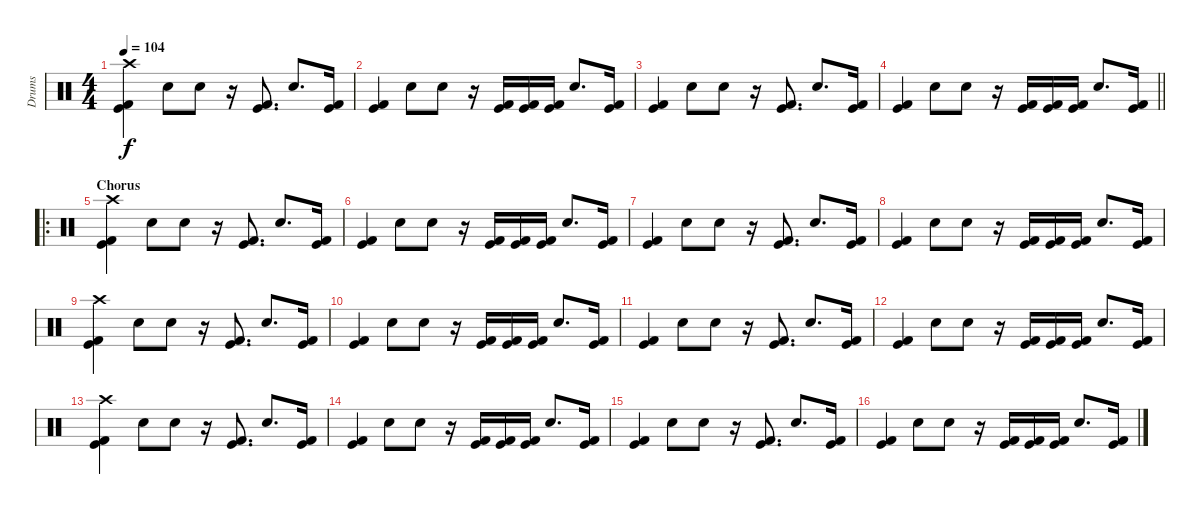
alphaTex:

\track ("Drums" "Drums") {instrument percussion}
\staff {score}
\articulation defaults
\ts (4 4)
\tempo 104
\clef neutral
\ks c
("Crash high (hit)" "Kick (hit) 2" "Kick (hit)").4{dy f} "Snare (hit) 2".8 "Snare (hit) 2".8 r.16 ("Kick (hit) 2" "Kick (hit)").8{d} "Snare (hit) 2".8{d} ("Kick (hit) 2" "Kick (hit)").16 |
("Kick (hit) 2" "Kick (hit)").4 "Snare (hit) 2".8 "Snare (hit) 2".8 r.16 ("Kick (hit) 2" "Kick (hit)").16 ("Kick (hit) 2" "Kick (hit)").16 ("Kick (hit) 2" "Kick (hit)").16 "Snare (hit) 2".8{d} ("Kick (hit) 2" "Kick (hit)").16 |
("Kick (hit) 2" "Kick (hit)").4 "Snare (hit) 2".8 "Snare (hit) 2".8 r.16 ("Kick (hit) 2" "Kick (hit)").8{d} "Snare (hit) 2".8{d} ("Kick (hit) 2" "Kick (hit)").16 |
\barLineRight lightlight
("Kick (hit) 2" "Kick (hit)").4 "Snare (hit) 2".8 "Snare (hit) 2".8 r.16 ("Kick (hit) 2" "Kick (hit)").16 ("Kick (hit) 2" "Kick (hit)").16 ("Kick (hit) 2" "Kick (hit)").16 "Snare (hit) 2".8{d} ("Kick (hit) 2" "Kick (hit)").16 |
\ro
\section ("" "Chorus")
("Crash high (hit)" "Kick (hit) 2" "Kick (hit)").4 "Snare (hit) 2".8 "Snare (hit) 2".8 r.16 ("Kick (hit) 2" "Kick (hit)").8{d} "Snare (hit) 2".8{d} ("Kick (hit) 2" "Kick (hit)").16 |
("Kick (hit) 2" "Kick (hit)").4 "Snare (hit) 2".8 "Snare (hit) 2".8 r.16 ("Kick (hit) 2" "Kick (hit)").16 ("Kick (hit) 2" "Kick (hit)").16 ("Kick (hit) 2" "Kick (hit)").16 "Snare (hit) 2".8{d} ("Kick (hit) 2" "Kick (hit)").16 |
("Kick (hit) 2" "Kick (hit)").4 "Snare (hit) 2".8 "Snare (hit) 2".8 r.16 ("Kick (hit) 2" "Kick (hit)").8{d} "Snare (hit) 2".8{d} ("Kick (hit) 2" "Kick (hit)").16 |
("Kick (hit) 2" "Kick (hit)").4 "Snare (hit) 2".8 "Snare (hit) 2".8 r.16 ("Kick (hit) 2" "Kick (hit)").16 ("Kick (hit) 2" "Kick (hit)").16 ("Kick (hit) 2" "Kick (hit)").16 "Snare (hit) 2".8{d} ("Kick (hit) 2" "Kick (hit)").16 |
("Crash high (hit)" "Kick (hit) 2" "Kick (hit)").4 "Snare (hit) 2".8 "Snare (hit) 2".8 r.16 ("Kick (hit) 2" "Kick (hit)").8{d} "Snare (hit) 2".8{d} ("Kick (hit) 2" "Kick (hit)").16 |
("Kick (hit) 2" "Kick (hit)").4 "Snare (hit) 2".8 "Snare (hit) 2".8 r.16 ("Kick (hit) 2" "Kick (hit)").16 ("Kick (hit) 2" "Kick (hit)").16 ("Kick (hit) 2" "Kick (hit)").16 "Snare (hit) 2".8{d} ("Kick (hit) 2" "Kick (hit)").16 |
("Kick (hit) 2" "Kick (hit)").4 "Snare (hit) 2".8 "Snare (hit) 2".8 r.16 ("Kick (hit) 2" "Kick (hit)").8{d} "Snare (hit) 2".8{d} ("Kick (hit) 2" "Kick (hit)").16 |
("Kick (hit) 2" "Kick (hit)").4 "Snare (hit) 2".8 "Snare (hit) 2".8 r.16 ("Kick (hit) 2" "Kick (hit)").16 ("Kick (hit) 2" "Kick (hit)").16 ("Kick (hit) 2" "Kick (hit)").16 "Snare (hit) 2".8{d} ("Kick (hit) 2" "Kick (hit)").16 |
("Crash high (hit)" "Kick (hit) 2" "Kick (hit)").4 "Snare (hit) 2".8 "Snare (hit) 2".8 r.16 ("Kick (hit) 2" "Kick (hit)").8{d} "Snare (hit) 2".8{d} ("Kick (hit) 2" "Kick (hit)").16 |
("Kick (hit) 2" "Kick (hit)").4 "Snare (hit) 2".8 "Snare (hit) 2".8 r.16 ("Kick (hit) 2" "Kick (hit)").16 ("Kick (hit) 2" "Kick (hit)").16 ("Kick (hit) 2" "Kick (hit)").16 "Snare (hit) 2".8{d} ("Kick (hit) 2" "Kick (hit)").16 |
("Kick (hit) 2" "Kick (hit)").4 "Snare (hit) 2".8 "Snare (hit) 2".8 r.16 ("Kick (hit) 2" "Kick (hit)").8{d} "Snare (hit) 2".8{d} ("Kick (hit) 2" "Kick (hit)").16 |
("Kick (hit) 2" "Kick (hit)").4 "Snare (hit) 2".8 "Snare (hit) 2".8 r.16 ("Kick (hit) 2" "Kick (hit)").16 ("Kick (hit) 2" "Kick (hit)").16 ("Kick (hit) 2" "Kick (hit)").16 "Snare (hit) 2".8{d} ("Kick (hit) 2" "Kick (hit)").16
